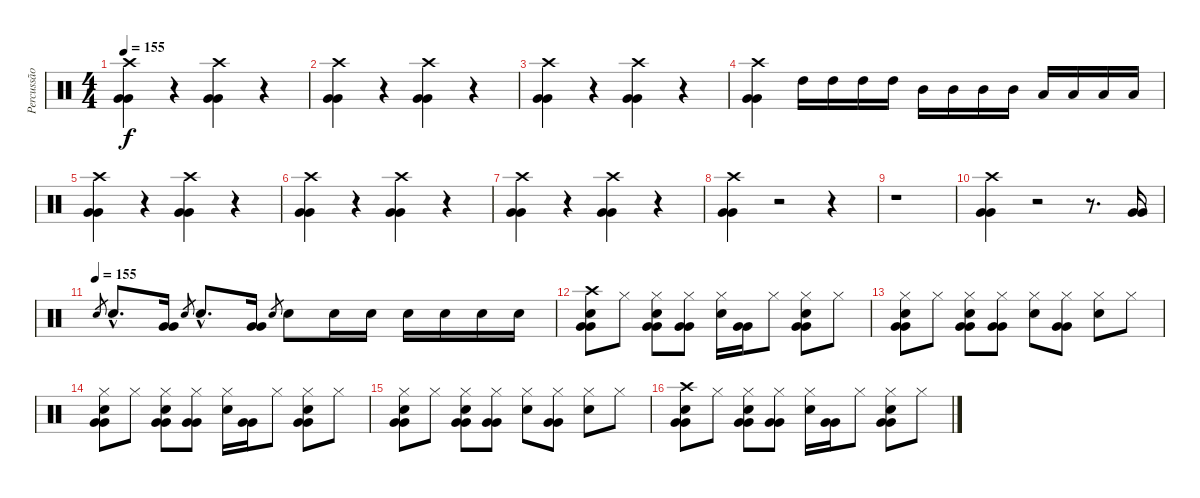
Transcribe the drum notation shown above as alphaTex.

\track ("Percussão" "Percussão") {instrument percussion}
\staff {score}
\articulation defaults
\ts (4 4)
\tempo 155
\tempo 145
\tempo 155
\clef neutral
\ks c
("Crash high (hit)" "Very Low Tom (hit)" "Very Low Tom (hit)").4{dy f} r.4 ("Crash high (hit)" "Very Low Tom (hit)" "Very Low Tom (hit)").4 r.4 |
("Crash high (hit)" "Very Low Tom (hit)" "Very Low Tom (hit)").4 r.4 ("Crash high (hit)" "Very Low Tom (hit)" "Very Low Tom (hit)").4 r.4 |
("Crash high (hit)" "Very Low Tom (hit)" "Very Low Tom (hit)").4 r.4 ("Crash high (hit)" "Very Low Tom (hit)" "Very Low Tom (hit)").4 r.4 |
("Crash high (hit)" "Very Low Tom (hit)" "Very Low Tom (hit)").4 "High Tom (hit)".16 "High Tom (hit)".16 "High Tom (hit)".16 "High Tom (hit)".16 "Mid Tom (hit)".16 "Mid Tom (hit)".16 "Mid Tom (hit)".16 "Mid Tom (hit)".16 "Low Tom (hit)".16 "Low Tom (hit)".16 "Low Tom (hit)".16 "Low Tom (hit)".16 |
("Crash high (hit)" "Very Low Tom (hit)" "Very Low Tom (hit)").4 r.4 ("Crash high (hit)" "Very Low Tom (hit)" "Very Low Tom (hit)").4 r.4 |
("Crash high (hit)" "Very Low Tom (hit)" "Very Low Tom (hit)").4 r.4 ("Crash high (hit)" "Very Low Tom (hit)" "Very Low Tom (hit)").4 r.4 |
("Crash high (hit)" "Very Low Tom (hit)" "Very Low Tom (hit)").4 r.4 ("Crash high (hit)" "Very Low Tom (hit)" "Very Low Tom (hit)").4 r.4 |
("Crash high (hit)" "Very Low Tom (hit)" "Very Low Tom (hit)").4 r.2 r.4 |
r.1 |
("Crash high (hit)" "Very Low Tom (hit)" "Very Low Tom (hit)").4 r.2 r.8{d} ("Very Low Tom (hit)" "Very Low Tom (hit)").16 |
\tempo (155)
"Electric Snare (hit)".8{gr} "Electric Snare (hit)"{hac}.8{d} ("Very Low Tom (hit)" "Very Low Tom (hit)").16 "Electric Snare (hit)".8{gr} "Electric Snare (hit)"{hac}.8{d} ("Very Low Tom (hit)" "Very Low Tom (hit)").16 "Electric Snare (hit)".8{gr} "Electric Snare (hit)".8 "Electric Snare (hit)".16 "Electric Snare (hit)".16 "Electric Snare (hit)".16 "Electric Snare (hit)".16 "Electric Snare (hit)".16 "Electric Snare (hit)".16 |
("Crash high (hit)" "Electric Snare (hit)" "Very Low Tom (hit)" "Very Low Tom (hit)").8 "Hi-Hat (closed)".8 ("Hi-Hat (closed)" "Electric Snare (hit)" "Very Low Tom (hit)" "Very Low Tom (hit)").8 ("Hi-Hat (closed)" "Very Low Tom (hit)" "Very Low Tom (hit)").8 ("Hi-Hat (closed)" "Electric Snare (hit)").16 ("Very Low Tom (hit)" "Very Low Tom (hit)").16 "Hi-Hat (closed)".8 ("Hi-Hat (closed)" "Electric Snare (hit)" "Very Low Tom (hit)" "Very Low Tom (hit)").8 "Hi-Hat (closed)".8 |
("Hi-Hat (closed)" "Electric Snare (hit)" "Very Low Tom (hit)" "Very Low Tom (hit)").8 "Hi-Hat (closed)".8 ("Hi-Hat (closed)" "Electric Snare (hit)" "Very Low Tom (hit)" "Very Low Tom (hit)").8 ("Hi-Hat (closed)" "Very Low Tom (hit)" "Very Low Tom (hit)").8 ("Hi-Hat (closed)" "Electric Snare (hit)").8 ("Hi-Hat (closed)" "Very Low Tom (hit)" "Very Low Tom (hit)").8 ("Hi-Hat (closed)" "Electric Snare (hit)").8 "Hi-Hat (closed)".8 |
("Hi-Hat (closed)" "Electric Snare (hit)" "Very Low Tom (hit)" "Very Low Tom (hit)").8 "Hi-Hat (closed)".8 ("Hi-Hat (closed)" "Electric Snare (hit)" "Very Low Tom (hit)" "Very Low Tom (hit)").8 ("Hi-Hat (closed)" "Very Low Tom (hit)" "Very Low Tom (hit)").8 ("Hi-Hat (closed)" "Electric Snare (hit)").16 ("Very Low Tom (hit)" "Very Low Tom (hit)").16 "Hi-Hat (closed)".8 ("Hi-Hat (closed)" "Electric Snare (hit)" "Very Low Tom (hit)" "Very Low Tom (hit)").8 "Hi-Hat (closed)".8 |
("Hi-Hat (closed)" "Electric Snare (hit)" "Very Low Tom (hit)" "Very Low Tom (hit)").8 "Hi-Hat (closed)".8 ("Hi-Hat (closed)" "Electric Snare (hit)" "Very Low Tom (hit)" "Very Low Tom (hit)").8 ("Hi-Hat (closed)" "Very Low Tom (hit)" "Very Low Tom (hit)").8 ("Hi-Hat (closed)" "Electric Snare (hit)").8 ("Hi-Hat (closed)" "Very Low Tom (hit)" "Very Low Tom (hit)").8 ("Hi-Hat (closed)" "Electric Snare (hit)").8 "Hi-Hat (closed)".8 |
("Crash high (hit)" "Electric Snare (hit)" "Very Low Tom (hit)" "Very Low Tom (hit)").8 "Hi-Hat (closed)".8 ("Hi-Hat (closed)" "Electric Snare (hit)" "Very Low Tom (hit)" "Very Low Tom (hit)").8 ("Hi-Hat (closed)" "Very Low Tom (hit)" "Very Low Tom (hit)").8 ("Hi-Hat (closed)" "Electric Snare (hit)").16 ("Very Low Tom (hit)" "Very Low Tom (hit)").16 "Hi-Hat (closed)".8 ("Hi-Hat (closed)" "Electric Snare (hit)" "Very Low Tom (hit)" "Very Low Tom (hit)").8 "Hi-Hat (closed)".8
